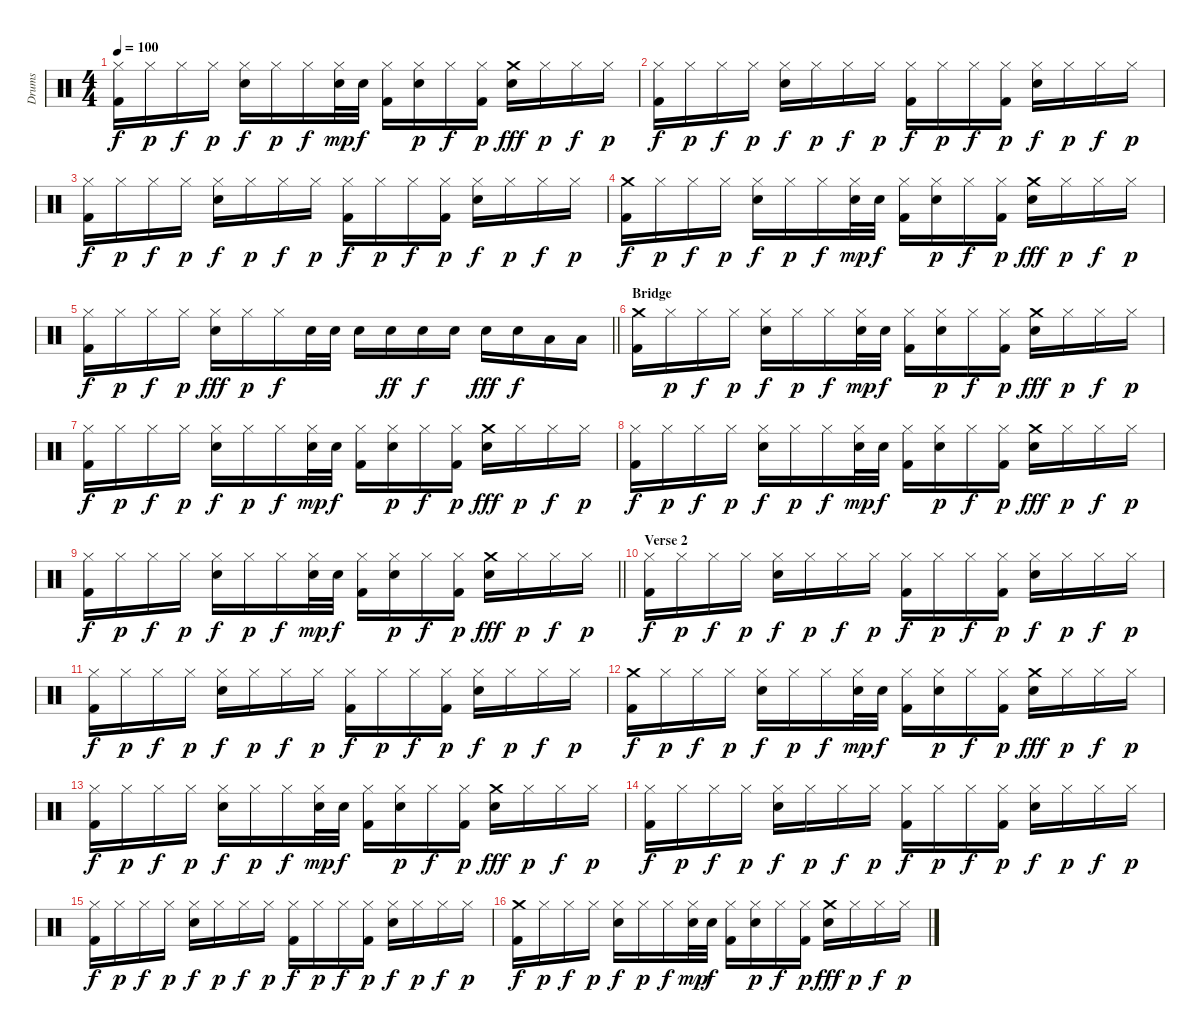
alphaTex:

\track ("Drums" "Drums") {instrument percussion}
\staff {score}
\articulation defaults
\ts (4 4)
\tempo 100
\clef neutral
\ks c
("Hi-Hat (closed)" "Kick (hit) 2").16{dy f} "Hi-Hat (closed)".16{dy p} "Hi-Hat (closed)".16{dy f} "Hi-Hat (closed)".16{dy p} ("Hi-Hat (closed)" "Electric Snare (hit)").16{dy f} "Hi-Hat (closed)".16{dy p} "Hi-Hat (closed)".16{dy f} ("Hi-Hat (closed)" "Electric Snare (hit)").32{dy mp} "Electric Snare (hit)".32{dy f} ("Hi-Hat (closed)" "Kick (hit) 2").16 ("Hi-Hat (closed)" "Electric Snare (hit)").16{dy p} "Hi-Hat (closed)".16{dy f} ("Hi-Hat (closed)" "Kick (hit) 2").16{dy p} ("Crash medium (hit)" "Electric Snare (hit)").16{dy fff} "Hi-Hat (closed)".16{dy p} "Hi-Hat (closed)".16{dy f} "Hi-Hat (closed)".16{dy p} |
("Hi-Hat (closed)" "Kick (hit) 2").16{dy f} "Hi-Hat (closed)".16{dy p} "Hi-Hat (closed)".16{dy f} "Hi-Hat (closed)".16{dy p} ("Hi-Hat (closed)" "Electric Snare (hit)").16{dy f} "Hi-Hat (closed)".16{dy p} "Hi-Hat (closed)".16{dy f} "Hi-Hat (closed)".16{dy p} ("Hi-Hat (closed)" "Kick (hit) 2").16{dy f} "Hi-Hat (closed)".16{dy p} "Hi-Hat (closed)".16{dy f} ("Hi-Hat (closed)" "Kick (hit) 2").16{dy p} ("Hi-Hat (closed)" "Electric Snare (hit)").16{dy f} "Hi-Hat (closed)".16{dy p} "Hi-Hat (closed)".16{dy f} "Hi-Hat (closed)".16{dy p} |
("Hi-Hat (closed)" "Kick (hit) 2").16{dy f} "Hi-Hat (closed)".16{dy p} "Hi-Hat (closed)".16{dy f} "Hi-Hat (closed)".16{dy p} ("Hi-Hat (closed)" "Electric Snare (hit)").16{dy f} "Hi-Hat (closed)".16{dy p} "Hi-Hat (closed)".16{dy f} "Hi-Hat (closed)".16{dy p} ("Hi-Hat (closed)" "Kick (hit) 2").16{dy f} "Hi-Hat (closed)".16{dy p} "Hi-Hat (closed)".16{dy f} ("Hi-Hat (closed)" "Kick (hit) 2").16{dy p} ("Hi-Hat (closed)" "Electric Snare (hit)").16{dy f} "Hi-Hat (closed)".16{dy p} "Hi-Hat (closed)".16{dy f} "Hi-Hat (closed)".16{dy p} |
("Crash medium (hit)" "Kick (hit) 2").16{dy f} "Hi-Hat (closed)".16{dy p} "Hi-Hat (closed)".16{dy f} "Hi-Hat (closed)".16{dy p} ("Hi-Hat (closed)" "Electric Snare (hit)").16{dy f} "Hi-Hat (closed)".16{dy p} "Hi-Hat (closed)".16{dy f} ("Hi-Hat (closed)" "Electric Snare (hit)").32{dy mp} "Electric Snare (hit)".32{dy f} ("Hi-Hat (closed)" "Kick (hit) 2").16 ("Hi-Hat (closed)" "Electric Snare (hit)").16{dy p} "Hi-Hat (closed)".16{dy f} ("Hi-Hat (closed)" "Kick (hit) 2").16{dy p} ("Crash medium (hit)" "Electric Snare (hit)").16{dy fff} "Hi-Hat (closed)".16{dy p} "Hi-Hat (closed)".16{dy f} "Hi-Hat (closed)".16{dy p} |
\barLineRight lightlight
("Hi-Hat (closed)" "Kick (hit) 2").16{dy f} "Hi-Hat (closed)".16{dy p} "Hi-Hat (closed)".16{dy f} "Hi-Hat (closed)".16{dy p} ("Hi-Hat (closed)" "Electric Snare (hit)").16{dy fff} "Hi-Hat (closed)".16{dy p} "Hi-Hat (closed)".16{dy f} "Snare (hit) 2".32 "Snare (hit) 2".32 "Electric Snare (hit)".16 "Electric Snare (hit)".16{dy ff} "Electric Snare (hit)".16{dy f} "Electric Snare (hit)".16 "Electric Snare (hit)".16{dy fff} "Electric Snare (hit)".16{dy f} "Low Tom (hit)".16 "Low Tom (hit)".16 |
\section ("" "Bridge")
("Crash medium (hit)" "Kick (hit) 2").16 "Hi-Hat (closed)".16{dy p} "Hi-Hat (closed)".16{dy f} "Hi-Hat (closed)".16{dy p} ("Hi-Hat (closed)" "Electric Snare (hit)").16{dy f} "Hi-Hat (closed)".16{dy p} "Hi-Hat (closed)".16{dy f} ("Hi-Hat (closed)" "Electric Snare (hit)").32{dy mp} "Electric Snare (hit)".32{dy f} ("Hi-Hat (closed)" "Kick (hit) 2").16 ("Hi-Hat (closed)" "Electric Snare (hit)").16{dy p} "Hi-Hat (closed)".16{dy f} ("Hi-Hat (closed)" "Kick (hit) 2").16{dy p} ("Crash medium (hit)" "Electric Snare (hit)").16{dy fff} "Hi-Hat (closed)".16{dy p} "Hi-Hat (closed)".16{dy f} "Hi-Hat (closed)".16{dy p} |
("Hi-Hat (closed)" "Kick (hit) 2").16{dy f} "Hi-Hat (closed)".16{dy p} "Hi-Hat (closed)".16{dy f} "Hi-Hat (closed)".16{dy p} ("Hi-Hat (closed)" "Electric Snare (hit)").16{dy f} "Hi-Hat (closed)".16{dy p} "Hi-Hat (closed)".16{dy f} ("Hi-Hat (closed)" "Electric Snare (hit)").32{dy mp} "Electric Snare (hit)".32{dy f} ("Hi-Hat (closed)" "Kick (hit) 2").16 ("Hi-Hat (closed)" "Electric Snare (hit)").16{dy p} "Hi-Hat (closed)".16{dy f} ("Hi-Hat (closed)" "Kick (hit) 2").16{dy p} ("Crash medium (hit)" "Electric Snare (hit)").16{dy fff} "Hi-Hat (closed)".16{dy p} "Hi-Hat (closed)".16{dy f} "Hi-Hat (closed)".16{dy p} |
("Hi-Hat (closed)" "Kick (hit) 2").16{dy f} "Hi-Hat (closed)".16{dy p} "Hi-Hat (closed)".16{dy f} "Hi-Hat (closed)".16{dy p} ("Hi-Hat (closed)" "Electric Snare (hit)").16{dy f} "Hi-Hat (closed)".16{dy p} "Hi-Hat (closed)".16{dy f} ("Hi-Hat (closed)" "Electric Snare (hit)").32{dy mp} "Electric Snare (hit)".32{dy f} ("Hi-Hat (closed)" "Kick (hit) 2").16 ("Hi-Hat (closed)" "Electric Snare (hit)").16{dy p} "Hi-Hat (closed)".16{dy f} ("Hi-Hat (closed)" "Kick (hit) 2").16{dy p} ("Crash medium (hit)" "Electric Snare (hit)").16{dy fff} "Hi-Hat (closed)".16{dy p} "Hi-Hat (closed)".16{dy f} "Hi-Hat (closed)".16{dy p} |
\barLineRight lightlight
("Hi-Hat (closed)" "Kick (hit) 2").16{dy f} "Hi-Hat (closed)".16{dy p} "Hi-Hat (closed)".16{dy f} "Hi-Hat (closed)".16{dy p} ("Hi-Hat (closed)" "Electric Snare (hit)").16{dy f} "Hi-Hat (closed)".16{dy p} "Hi-Hat (closed)".16{dy f} ("Hi-Hat (closed)" "Electric Snare (hit)").32{dy mp} "Electric Snare (hit)".32{dy f} ("Hi-Hat (closed)" "Kick (hit) 2").16 ("Hi-Hat (closed)" "Electric Snare (hit)").16{dy p} "Hi-Hat (closed)".16{dy f} ("Hi-Hat (closed)" "Kick (hit) 2").16{dy p} ("Crash medium (hit)" "Electric Snare (hit)").16{dy fff} "Hi-Hat (closed)".16{dy p} "Hi-Hat (closed)".16{dy f} "Hi-Hat (closed)".16{dy p} |
\section ("" "Verse 2")
("Hi-Hat (closed)" "Kick (hit) 2").16{dy f} "Hi-Hat (closed)".16{dy p} "Hi-Hat (closed)".16{dy f} "Hi-Hat (closed)".16{dy p} ("Hi-Hat (closed)" "Electric Snare (hit)").16{dy f} "Hi-Hat (closed)".16{dy p} "Hi-Hat (closed)".16{dy f} "Hi-Hat (closed)".16{dy p} ("Hi-Hat (closed)" "Kick (hit) 2").16{dy f} "Hi-Hat (closed)".16{dy p} "Hi-Hat (closed)".16{dy f} ("Hi-Hat (closed)" "Kick (hit) 2").16{dy p} ("Hi-Hat (closed)" "Electric Snare (hit)").16{dy f} "Hi-Hat (closed)".16{dy p} "Hi-Hat (closed)".16{dy f} "Hi-Hat (closed)".16{dy p} |
("Hi-Hat (closed)" "Kick (hit) 2").16{dy f} "Hi-Hat (closed)".16{dy p} "Hi-Hat (closed)".16{dy f} "Hi-Hat (closed)".16{dy p} ("Hi-Hat (closed)" "Electric Snare (hit)").16{dy f} "Hi-Hat (closed)".16{dy p} "Hi-Hat (closed)".16{dy f} "Hi-Hat (closed)".16{dy p} ("Hi-Hat (closed)" "Kick (hit) 2").16{dy f} "Hi-Hat (closed)".16{dy p} "Hi-Hat (closed)".16{dy f} ("Hi-Hat (closed)" "Kick (hit) 2").16{dy p} ("Hi-Hat (closed)" "Electric Snare (hit)").16{dy f} "Hi-Hat (closed)".16{dy p} "Hi-Hat (closed)".16{dy f} "Hi-Hat (closed)".16{dy p} |
("Crash medium (hit)" "Kick (hit) 2").16{dy f} "Hi-Hat (closed)".16{dy p} "Hi-Hat (closed)".16{dy f} "Hi-Hat (closed)".16{dy p} ("Hi-Hat (closed)" "Electric Snare (hit)").16{dy f} "Hi-Hat (closed)".16{dy p} "Hi-Hat (closed)".16{dy f} ("Hi-Hat (closed)" "Electric Snare (hit)").32{dy mp} "Electric Snare (hit)".32{dy f} ("Hi-Hat (closed)" "Kick (hit) 2").16 ("Hi-Hat (closed)" "Electric Snare (hit)").16{dy p} "Hi-Hat (closed)".16{dy f} ("Hi-Hat (closed)" "Kick (hit) 2").16{dy p} ("Crash medium (hit)" "Electric Snare (hit)").16{dy fff} "Hi-Hat (closed)".16{dy p} "Hi-Hat (closed)".16{dy f} "Hi-Hat (closed)".16{dy p} |
("Hi-Hat (closed)" "Kick (hit) 2").16{dy f} "Hi-Hat (closed)".16{dy p} "Hi-Hat (closed)".16{dy f} "Hi-Hat (closed)".16{dy p} ("Hi-Hat (closed)" "Electric Snare (hit)").16{dy f} "Hi-Hat (closed)".16{dy p} "Hi-Hat (closed)".16{dy f} ("Hi-Hat (closed)" "Electric Snare (hit)").32{dy mp} "Electric Snare (hit)".32{dy f} ("Hi-Hat (closed)" "Kick (hit) 2").16 ("Hi-Hat (closed)" "Electric Snare (hit)").16{dy p} "Hi-Hat (closed)".16{dy f} ("Hi-Hat (closed)" "Kick (hit) 2").16{dy p} ("Crash medium (hit)" "Electric Snare (hit)").16{dy fff} "Hi-Hat (closed)".16{dy p} "Hi-Hat (closed)".16{dy f} "Hi-Hat (closed)".16{dy p} |
("Hi-Hat (closed)" "Kick (hit) 2").16{dy f} "Hi-Hat (closed)".16{dy p} "Hi-Hat (closed)".16{dy f} "Hi-Hat (closed)".16{dy p} ("Hi-Hat (closed)" "Electric Snare (hit)").16{dy f} "Hi-Hat (closed)".16{dy p} "Hi-Hat (closed)".16{dy f} "Hi-Hat (closed)".16{dy p} ("Hi-Hat (closed)" "Kick (hit) 2").16{dy f} "Hi-Hat (closed)".16{dy p} "Hi-Hat (closed)".16{dy f} ("Hi-Hat (closed)" "Kick (hit) 2").16{dy p} ("Hi-Hat (closed)" "Electric Snare (hit)").16{dy f} "Hi-Hat (closed)".16{dy p} "Hi-Hat (closed)".16{dy f} "Hi-Hat (closed)".16{dy p} |
("Hi-Hat (closed)" "Kick (hit) 2").16{dy f} "Hi-Hat (closed)".16{dy p} "Hi-Hat (closed)".16{dy f} "Hi-Hat (closed)".16{dy p} ("Hi-Hat (closed)" "Electric Snare (hit)").16{dy f} "Hi-Hat (closed)".16{dy p} "Hi-Hat (closed)".16{dy f} "Hi-Hat (closed)".16{dy p} ("Hi-Hat (closed)" "Kick (hit) 2").16{dy f} "Hi-Hat (closed)".16{dy p} "Hi-Hat (closed)".16{dy f} ("Hi-Hat (closed)" "Kick (hit) 2").16{dy p} ("Hi-Hat (closed)" "Electric Snare (hit)").16{dy f} "Hi-Hat (closed)".16{dy p} "Hi-Hat (closed)".16{dy f} "Hi-Hat (closed)".16{dy p} |
("Crash medium (hit)" "Kick (hit) 2").16{dy f} "Hi-Hat (closed)".16{dy p} "Hi-Hat (closed)".16{dy f} "Hi-Hat (closed)".16{dy p} ("Hi-Hat (closed)" "Electric Snare (hit)").16{dy f} "Hi-Hat (closed)".16{dy p} "Hi-Hat (closed)".16{dy f} ("Hi-Hat (closed)" "Electric Snare (hit)").32{dy mp} "Electric Snare (hit)".32{dy f} ("Hi-Hat (closed)" "Kick (hit) 2").16 ("Hi-Hat (closed)" "Electric Snare (hit)").16{dy p} "Hi-Hat (closed)".16{dy f} ("Hi-Hat (closed)" "Kick (hit) 2").16{dy p} ("Crash medium (hit)" "Electric Snare (hit)").16{dy fff} "Hi-Hat (closed)".16{dy p} "Hi-Hat (closed)".16{dy f} "Hi-Hat (closed)".16{dy p}
